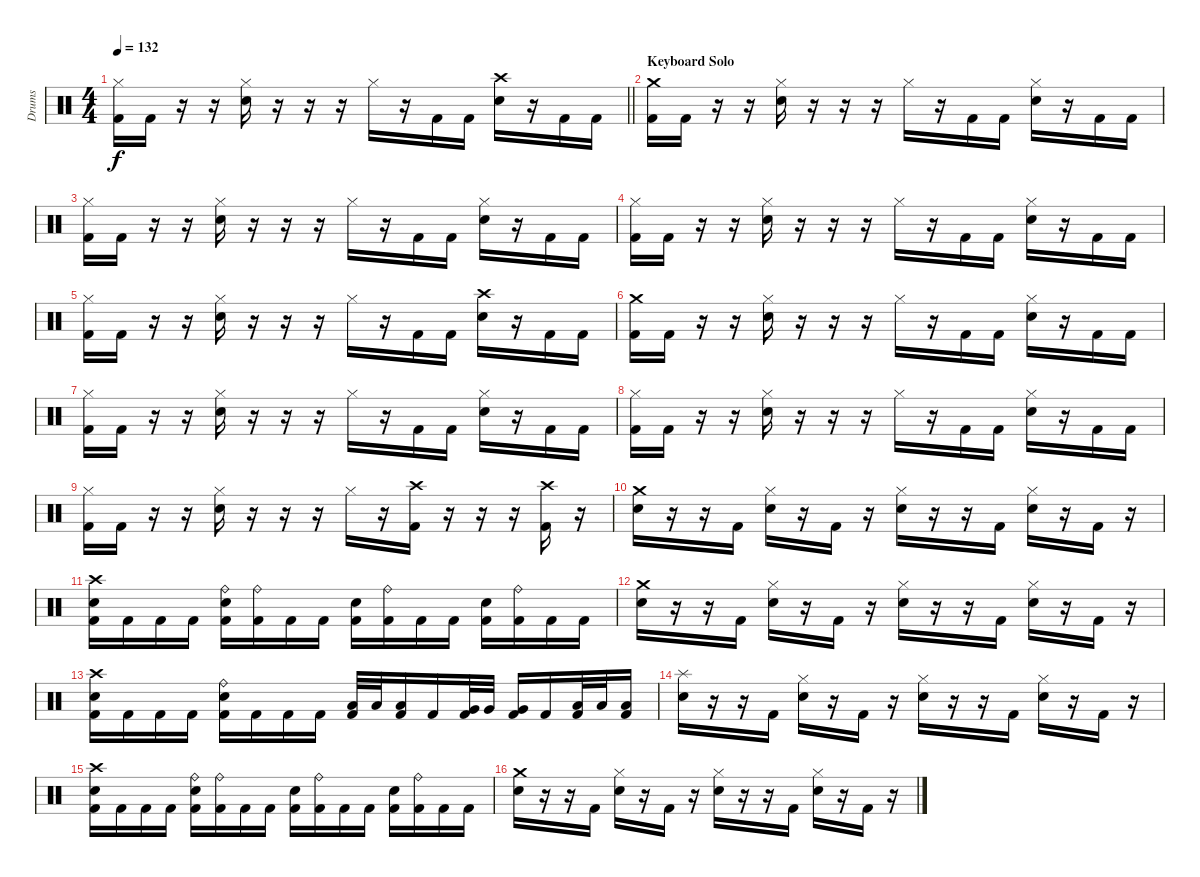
\track ("Drums" "Drums") {instrument percussion}
\staff {score}
\articulation defaults
\ts (4 4)
\tempo 132
\clef neutral
\barLineRight lightlight
\ks c
("Hi-Hat (closed)" "Kick (hit) 2").16{dy f} "Kick (hit) 2".16 r.16 r.16 ("Hi-Hat (closed)" "Electric Snare (hit)").16 r.16 r.16 r.16 "Hi-Hat (closed)".16 r.16 "Kick (hit) 2".16 "Kick (hit) 2".16 ("Crash high (hit)" "Electric Snare (hit)").16 r.16 "Kick (hit) 2".16 "Kick (hit) 2".16 |
\section ("" "Keyboard Solo")
("Crash medium (hit)" "Kick (hit) 2").16 "Kick (hit) 2".16 r.16 r.16 ("Hi-Hat (closed)" "Electric Snare (hit)").16 r.16 r.16 r.16 "Hi-Hat (closed)".16 r.16 "Kick (hit) 2".16 "Kick (hit) 2".16 ("Hi-Hat (closed)" "Electric Snare (hit)").16 r.16 "Kick (hit) 2".16 "Kick (hit) 2".16 |
("Hi-Hat (closed)" "Kick (hit) 2").16 "Kick (hit) 2".16 r.16 r.16 ("Hi-Hat (closed)" "Electric Snare (hit)").16 r.16 r.16 r.16 "Hi-Hat (closed)".16 r.16 "Kick (hit) 2".16 "Kick (hit) 2".16 ("Hi-Hat (closed)" "Electric Snare (hit)").16 r.16 "Kick (hit) 2".16 "Kick (hit) 2".16 |
("Hi-Hat (closed)" "Kick (hit) 2").16 "Kick (hit) 2".16 r.16 r.16 ("Hi-Hat (closed)" "Electric Snare (hit)").16 r.16 r.16 r.16 "Hi-Hat (closed)".16 r.16 "Kick (hit) 2".16 "Kick (hit) 2".16 ("Hi-Hat (closed)" "Electric Snare (hit)").16 r.16 "Kick (hit) 2".16 "Kick (hit) 2".16 |
("Hi-Hat (closed)" "Kick (hit) 2").16 "Kick (hit) 2".16 r.16 r.16 ("Hi-Hat (closed)" "Electric Snare (hit)").16 r.16 r.16 r.16 "Hi-Hat (closed)".16 r.16 "Kick (hit) 2".16 "Kick (hit) 2".16 ("Crash high (hit)" "Electric Snare (hit)").16 r.16 "Kick (hit) 2".16 "Kick (hit) 2".16 |
("Crash medium (hit)" "Kick (hit) 2").16 "Kick (hit) 2".16 r.16 r.16 ("Hi-Hat (closed)" "Electric Snare (hit)").16 r.16 r.16 r.16 "Hi-Hat (closed)".16 r.16 "Kick (hit) 2".16 "Kick (hit) 2".16 ("Hi-Hat (closed)" "Electric Snare (hit)").16 r.16 "Kick (hit) 2".16 "Kick (hit) 2".16 |
("Hi-Hat (closed)" "Kick (hit) 2").16 "Kick (hit) 2".16 r.16 r.16 ("Hi-Hat (closed)" "Electric Snare (hit)").16 r.16 r.16 r.16 "Hi-Hat (closed)".16 r.16 "Kick (hit) 2".16 "Kick (hit) 2".16 ("Hi-Hat (closed)" "Electric Snare (hit)").16 r.16 "Kick (hit) 2".16 "Kick (hit) 2".16 |
("Hi-Hat (closed)" "Kick (hit) 2").16 "Kick (hit) 2".16 r.16 r.16 ("Hi-Hat (closed)" "Electric Snare (hit)").16 r.16 r.16 r.16 "Hi-Hat (closed)".16 r.16 "Kick (hit) 2".16 "Kick (hit) 2".16 ("Hi-Hat (closed)" "Electric Snare (hit)").16 r.16 "Kick (hit) 2".16 "Kick (hit) 2".16 |
("Hi-Hat (closed)" "Kick (hit) 2").16 "Kick (hit) 2".16 r.16 r.16 ("Hi-Hat (closed)" "Electric Snare (hit)").16 r.16 r.16 r.16 "Hi-Hat (closed)".16 r.16 ("Crash high (hit)" "Kick (hit) 2").16 r.16 r.16 r.16 ("Crash high (hit)" "Kick (hit) 2").16 r.16 |
("Crash medium (hit)" "Electric Snare (hit)").16 r.16 r.16 "Kick (hit) 2".16 ("Hi-Hat (closed)" "Electric Snare (hit)").16 r.16 "Kick (hit) 2".16 r.16 ("Hi-Hat (closed)" "Electric Snare (hit)").16 r.16 r.16 "Kick (hit) 2".16 ("Hi-Hat (closed)" "Electric Snare (hit)").16 r.16 "Kick (hit) 2".16 r.16 |
("Crash high (hit)" "Electric Snare (hit)" "Kick (hit) 2").16 "Kick (hit) 2".16 "Kick (hit) 2".16 "Kick (hit) 2".16 ("Ride (bell)" "Electric Snare (hit)" "Kick (hit) 2").16 ("Ride (bell)" "Kick (hit) 2").16 "Kick (hit) 2".16 "Kick (hit) 2".16 ("Electric Snare (hit)" "Kick (hit) 2").16 ("Ride (bell)" "Kick (hit) 2").16 "Kick (hit) 2".16 "Kick (hit) 2".16 ("Electric Snare (hit)" "Kick (hit) 2").16 ("Ride (bell)" "Kick (hit) 2").16 "Kick (hit) 2".16 "Kick (hit) 2".16 |
("Crash medium (hit)" "Electric Snare (hit)").16 r.16 r.16 "Kick (hit) 2".16 ("Hi-Hat (closed)" "Electric Snare (hit)").16 r.16 "Kick (hit) 2".16 r.16 ("Hi-Hat (closed)" "Electric Snare (hit)").16 r.16 r.16 "Kick (hit) 2".16 ("Hi-Hat (closed)" "Electric Snare (hit)").16 r.16 "Kick (hit) 2".16 r.16 |
("Crash high (hit)" "Electric Snare (hit)" "Kick (hit) 2").16 "Kick (hit) 2".16 "Kick (hit) 2".16 "Kick (hit) 2".16 ("Ride (bell)" "Electric Snare (hit)" "Kick (hit) 2").16 "Kick (hit) 2".16 "Kick (hit) 2".16 "Kick (hit) 2".16 ("Low Tom (hit)" "Kick (hit) 2").32 "Low Tom (hit)".32 ("Low Tom (hit)" "Kick (hit) 2").16 "Kick (hit) 2".16 ("Very Low Tom (hit)" "Kick (hit) 2").32 "Very Low Tom (hit)".32 ("Very Low Tom (hit)" "Kick (hit) 2").16 "Kick (hit) 2".16 ("Low Floor Tom (hit)" "Kick (hit) 2").32 "Low Floor Tom (hit)".32 ("Low Floor Tom (hit)" "Kick (hit) 2").16 |
("Splash (hit)" "Electric Snare (hit)").16 r.16 r.16 "Kick (hit) 2".16 ("Hi-Hat (closed)" "Electric Snare (hit)").16 r.16 "Kick (hit) 2".16 r.16 ("Hi-Hat (closed)" "Electric Snare (hit)").16 r.16 r.16 "Kick (hit) 2".16 ("Hi-Hat (closed)" "Electric Snare (hit)").16 r.16 "Kick (hit) 2".16 r.16 |
("Crash high (hit)" "Electric Snare (hit)" "Kick (hit) 2").16 "Kick (hit) 2".16 "Kick (hit) 2".16 "Kick (hit) 2".16 ("Ride (bell)" "Electric Snare (hit)" "Kick (hit) 2").16 ("Ride (bell)" "Kick (hit) 2").16 "Kick (hit) 2".16 "Kick (hit) 2".16 ("Electric Snare (hit)" "Kick (hit) 2").16 ("Ride (bell)" "Kick (hit) 2").16 "Kick (hit) 2".16 "Kick (hit) 2".16 ("Electric Snare (hit)" "Kick (hit) 2").16 ("Ride (bell)" "Kick (hit) 2").16 "Kick (hit) 2".16 "Kick (hit) 2".16 |
("Crash medium (hit)" "Electric Snare (hit)").16 r.16 r.16 "Kick (hit) 2".16 ("Hi-Hat (closed)" "Electric Snare (hit)").16 r.16 "Kick (hit) 2".16 r.16 ("Hi-Hat (closed)" "Electric Snare (hit)").16 r.16 r.16 "Kick (hit) 2".16 ("Hi-Hat (closed)" "Electric Snare (hit)").16 r.16 "Kick (hit) 2".16 r.16
